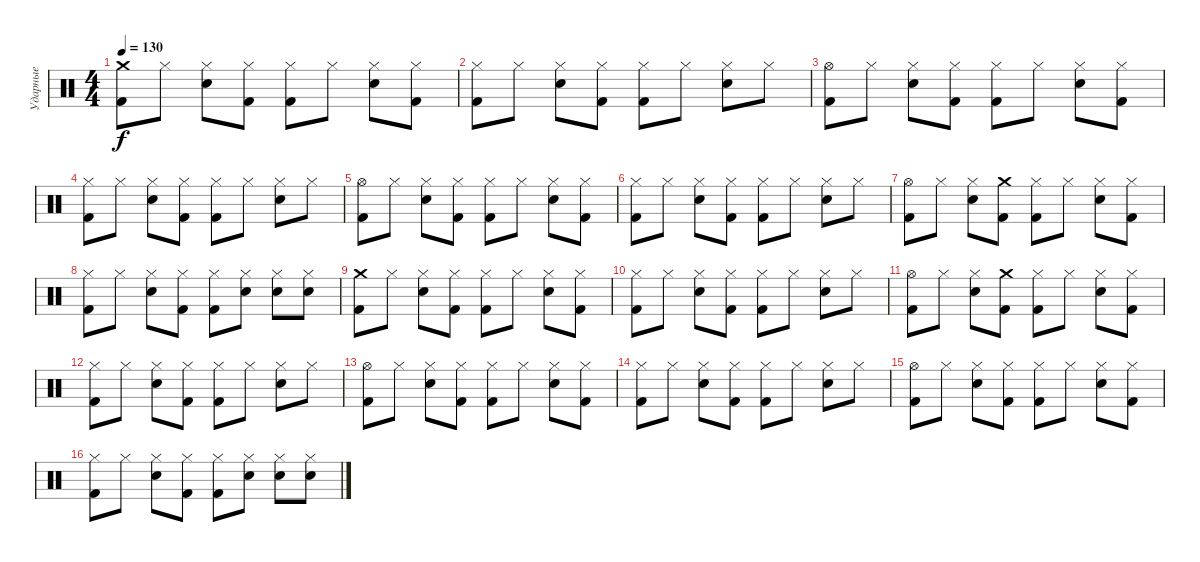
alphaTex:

\track ("Ударные" "Ударные") {instrument percussion}
\staff {score}
\articulation defaults
\ts (4 4)
\tempo 130
\clef neutral
\ks c
("Crash medium (hit)" "Kick (hit) 2").8{dy f} "Hi-Hat (closed)".8 ("Hi-Hat (closed)" "Snare (hit) 2").8 ("Hi-Hat (closed)" "Kick (hit) 2").8 ("Hi-Hat (closed)" "Kick (hit) 2").8 "Hi-Hat (closed)".8 ("Hi-Hat (closed)" "Snare (hit) 2").8 ("Hi-Hat (closed)" "Kick (hit) 2").8 |
("Hi-Hat (closed)" "Kick (hit) 2").8 "Hi-Hat (closed)".8 ("Hi-Hat (closed)" "Snare (hit) 2").8 ("Hi-Hat (closed)" "Kick (hit) 2").8 ("Hi-Hat (closed)" "Kick (hit) 2").8 "Hi-Hat (closed)".8 ("Hi-Hat (closed)" "Snare (hit) 2").8 "Hi-Hat (closed)".8 |
("Hi-Hat (open)" "Kick (hit) 2").8 "Hi-Hat (closed)".8 ("Hi-Hat (closed)" "Snare (hit) 2").8 ("Hi-Hat (closed)" "Kick (hit) 2").8 ("Hi-Hat (closed)" "Kick (hit) 2").8 "Hi-Hat (closed)".8 ("Hi-Hat (closed)" "Snare (hit) 2").8 ("Hi-Hat (closed)" "Kick (hit) 2").8 |
("Hi-Hat (closed)" "Kick (hit) 2").8 "Hi-Hat (closed)".8 ("Hi-Hat (closed)" "Snare (hit) 2").8 ("Hi-Hat (closed)" "Kick (hit) 2").8 ("Hi-Hat (closed)" "Kick (hit) 2").8 "Hi-Hat (closed)".8 ("Hi-Hat (closed)" "Snare (hit) 2").8 "Hi-Hat (closed)".8 |
("Hi-Hat (open)" "Kick (hit) 2").8 "Hi-Hat (closed)".8 ("Hi-Hat (closed)" "Snare (hit) 2").8 ("Hi-Hat (closed)" "Kick (hit) 2").8 ("Hi-Hat (closed)" "Kick (hit) 2").8 "Hi-Hat (closed)".8 ("Hi-Hat (closed)" "Snare (hit) 2").8 ("Hi-Hat (closed)" "Kick (hit) 2").8 |
("Hi-Hat (closed)" "Kick (hit) 2").8 "Hi-Hat (closed)".8 ("Hi-Hat (closed)" "Snare (hit) 2").8 ("Hi-Hat (closed)" "Kick (hit) 2").8 ("Hi-Hat (closed)" "Kick (hit) 2").8 "Hi-Hat (closed)".8 ("Hi-Hat (closed)" "Snare (hit) 2").8 "Hi-Hat (closed)".8 |
("Hi-Hat (open)" "Kick (hit) 2").8 "Hi-Hat (closed)".8 ("Hi-Hat (closed)" "Snare (hit) 2").8 ("Crash medium (hit)" "Kick (hit) 2").8 ("Hi-Hat (closed)" "Kick (hit) 2").8 "Hi-Hat (closed)".8 ("Hi-Hat (closed)" "Snare (hit) 2").8 ("Hi-Hat (closed)" "Kick (hit) 2").8 |
("Hi-Hat (closed)" "Kick (hit) 2").8 "Hi-Hat (closed)".8 ("Hi-Hat (closed)" "Snare (hit) 2").8 ("Hi-Hat (closed)" "Kick (hit) 2").8 ("Hi-Hat (closed)" "Kick (hit) 2").8 ("Hi-Hat (closed)" "Snare (hit) 2").8 ("Hi-Hat (closed)" "Snare (hit) 2").8 ("Hi-Hat (closed)" "Snare (hit) 2").8 |
("Crash medium (hit)" "Kick (hit) 2").8 "Hi-Hat (closed)".8 ("Hi-Hat (closed)" "Snare (hit) 2").8 ("Hi-Hat (closed)" "Kick (hit) 2").8 ("Hi-Hat (closed)" "Kick (hit) 2").8 "Hi-Hat (closed)".8 ("Hi-Hat (closed)" "Snare (hit) 2").8 ("Hi-Hat (closed)" "Kick (hit) 2").8 |
("Hi-Hat (closed)" "Kick (hit) 2").8 "Hi-Hat (closed)".8 ("Hi-Hat (closed)" "Snare (hit) 2").8 ("Hi-Hat (closed)" "Kick (hit) 2").8 ("Hi-Hat (closed)" "Kick (hit) 2").8 "Hi-Hat (closed)".8 ("Hi-Hat (closed)" "Snare (hit) 2").8 "Hi-Hat (closed)".8 |
("Hi-Hat (open)" "Kick (hit) 2").8 "Hi-Hat (closed)".8 ("Hi-Hat (closed)" "Snare (hit) 2").8 ("Crash medium (hit)" "Kick (hit) 2").8 ("Hi-Hat (closed)" "Kick (hit) 2").8 "Hi-Hat (closed)".8 ("Hi-Hat (closed)" "Snare (hit) 2").8 ("Hi-Hat (closed)" "Kick (hit) 2").8 |
("Hi-Hat (closed)" "Kick (hit) 2").8 "Hi-Hat (closed)".8 ("Hi-Hat (closed)" "Snare (hit) 2").8 ("Hi-Hat (closed)" "Kick (hit) 2").8 ("Hi-Hat (closed)" "Kick (hit) 2").8 "Hi-Hat (closed)".8 ("Hi-Hat (closed)" "Snare (hit) 2").8 "Hi-Hat (closed)".8 |
("Hi-Hat (open)" "Kick (hit) 2").8 "Hi-Hat (closed)".8 ("Hi-Hat (closed)" "Snare (hit) 2").8 ("Hi-Hat (closed)" "Kick (hit) 2").8 ("Hi-Hat (closed)" "Kick (hit) 2").8 "Hi-Hat (closed)".8 ("Hi-Hat (closed)" "Snare (hit) 2").8 ("Hi-Hat (closed)" "Kick (hit) 2").8 |
("Hi-Hat (closed)" "Kick (hit) 2").8 "Hi-Hat (closed)".8 ("Hi-Hat (closed)" "Snare (hit) 2").8 ("Hi-Hat (closed)" "Kick (hit) 2").8 ("Hi-Hat (closed)" "Kick (hit) 2").8 "Hi-Hat (closed)".8 ("Hi-Hat (closed)" "Snare (hit) 2").8 "Hi-Hat (closed)".8 |
("Hi-Hat (open)" "Kick (hit) 2").8 "Hi-Hat (closed)".8 ("Hi-Hat (closed)" "Snare (hit) 2").8 ("Hi-Hat (closed)" "Kick (hit) 2").8 ("Hi-Hat (closed)" "Kick (hit) 2").8 "Hi-Hat (closed)".8 ("Hi-Hat (closed)" "Snare (hit) 2").8 ("Hi-Hat (closed)" "Kick (hit) 2").8 |
("Hi-Hat (closed)" "Kick (hit) 2").8 "Hi-Hat (closed)".8 ("Hi-Hat (closed)" "Snare (hit) 2").8 ("Hi-Hat (closed)" "Kick (hit) 2").8 ("Hi-Hat (closed)" "Kick (hit) 2").8 ("Hi-Hat (closed)" "Snare (hit) 2").8 ("Hi-Hat (closed)" "Snare (hit) 2").8 ("Hi-Hat (closed)" "Snare (hit) 2").8
